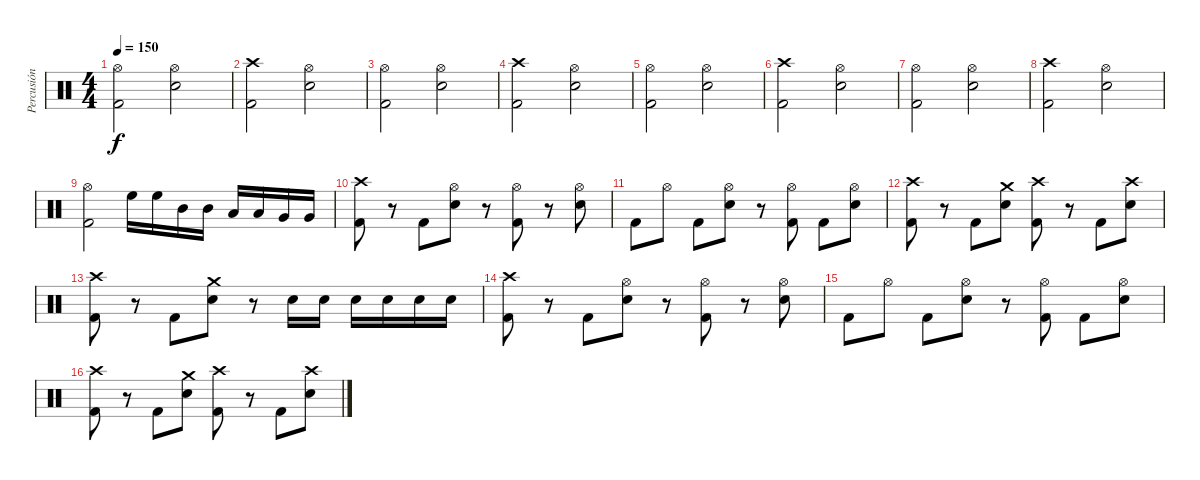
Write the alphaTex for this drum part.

\track ("Percusión" "Percusión") {instrument percussion}
\staff {score}
\articulation defaults
\ts (4 4)
\tempo 150
\clef neutral
\ks c
("Hi-Hat (open)" "Kick (hit) 2").2{dy f} ("Hi-Hat (open)" "Electric Snare (hit)").2 |
("Crash high (hit)" "Kick (hit) 2").2 ("Hi-Hat (open)" "Electric Snare (hit)").2 |
("Hi-Hat (open)" "Kick (hit) 2").2 ("Hi-Hat (open)" "Electric Snare (hit)").2 |
("Crash high (hit)" "Kick (hit) 2").2 ("Hi-Hat (open)" "Electric Snare (hit)").2 |
("Hi-Hat (open)" "Kick (hit) 2").2 ("Hi-Hat (open)" "Electric Snare (hit)").2 |
("Crash high (hit)" "Kick (hit) 2").2 ("Hi-Hat (open)" "Electric Snare (hit)").2 |
("Hi-Hat (open)" "Kick (hit) 2").2 ("Hi-Hat (open)" "Electric Snare (hit)").2 |
("Crash high (hit)" "Kick (hit) 2").2 ("Hi-Hat (open)" "Electric Snare (hit)").2 |
("Hi-Hat (open)" "Kick (hit) 2").2 "High Floor Tom (hit)".16 "High Floor Tom (hit)".16 "Mid Tom (hit)".16 "Mid Tom (hit)".16 "Low Tom (hit)".16 "Low Tom (hit)".16 "Very Low Tom (hit)".16 "Very Low Tom (hit)".16 |
("Crash high (hit)" "Kick (hit) 2").8 r.8 "Kick (hit) 2".8 ("Hi-Hat (open)" "Electric Snare (hit)").8 r.8 ("Hi-Hat (open)" "Kick (hit) 2").8 r.8 ("Hi-Hat (open)" "Electric Snare (hit)").8 |
"Kick (hit) 2".8 "Hi-Hat (open)".8 "Kick (hit) 2".8 ("Hi-Hat (open)" "Electric Snare (hit)").8 r.8 ("Hi-Hat (open)" "Kick (hit) 2").8 "Kick (hit) 2".8 ("Hi-Hat (open)" "Electric Snare (hit)").8 |
("Crash high (hit)" "Kick (hit) 2").8 r.8 "Kick (hit) 2".8 ("Crash medium (hit)" "Electric Snare (hit)").8 ("Crash high (hit)" "Kick (hit) 2").8 r.8 "Kick (hit) 2".8 ("Crash high (hit)" "Electric Snare (hit)").8 |
("Crash high (hit)" "Kick (hit) 2").8 r.8 "Kick (hit) 2".8 ("Crash medium (hit)" "Electric Snare (hit)").8 r.8 "Electric Snare (hit)".16 "Electric Snare (hit)".16 "Electric Snare (hit)".16 "Electric Snare (hit)".16 "Electric Snare (hit)".16 "Electric Snare (hit)".16 |
("Crash high (hit)" "Kick (hit) 2").8 r.8 "Kick (hit) 2".8 ("Hi-Hat (open)" "Electric Snare (hit)").8 r.8 ("Hi-Hat (open)" "Kick (hit) 2").8 r.8 ("Hi-Hat (open)" "Electric Snare (hit)").8 |
"Kick (hit) 2".8 "Hi-Hat (open)".8 "Kick (hit) 2".8 ("Hi-Hat (open)" "Electric Snare (hit)").8 r.8 ("Hi-Hat (open)" "Kick (hit) 2").8 "Kick (hit) 2".8 ("Hi-Hat (open)" "Electric Snare (hit)").8 |
("Crash high (hit)" "Kick (hit) 2").8 r.8 "Kick (hit) 2".8 ("Crash medium (hit)" "Electric Snare (hit)").8 ("Crash high (hit)" "Kick (hit) 2").8 r.8 "Kick (hit) 2".8 ("Crash high (hit)" "Electric Snare (hit)").8
